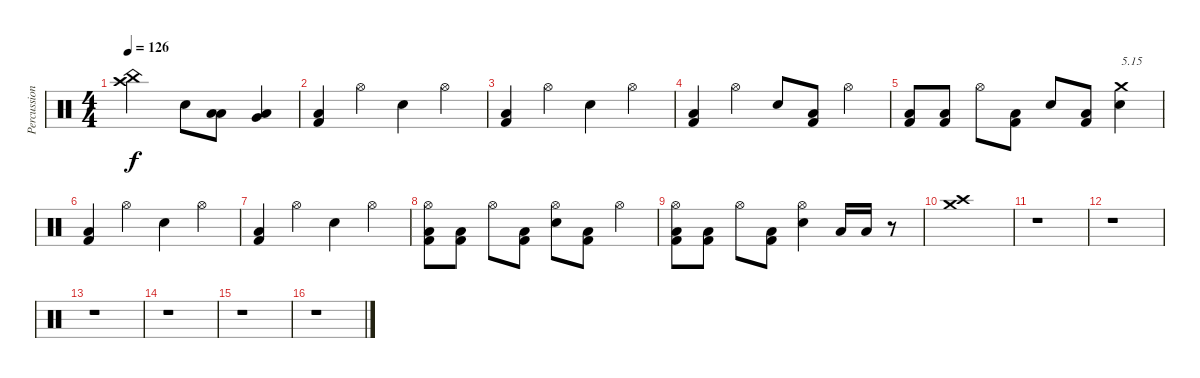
\track ("Percussions" "Percussion") {instrument percussion}
\staff {score}
\articulation defaults
\ts (4 4)
\tempo 126
\clef neutral
\ks c
("China (hit)" "Crash high (hit)").2{dy f} "Snare (hit) 2".8 ("Low Floor Tom (hit)" "Low Tom (hit)").8 ("Low Floor Tom (hit)" "Very Low Tom (hit)").4 |
("Kick (hit) 2" "Low Floor Tom (hit)").4 "Hi-Hat (open)".4 "Snare (hit) 2".4 "Hi-Hat (open)".4 |
("Kick (hit) 2" "Low Floor Tom (hit)").4 "Hi-Hat (open)".4 "Snare (hit) 2".4 "Hi-Hat (open)".4 |
("Kick (hit) 2" "Low Floor Tom (hit)").4 "Hi-Hat (open)".4 "Snare (hit) 2".8 ("Kick (hit) 2" "Low Floor Tom (hit)").8 "Hi-Hat (open)".4 |
("Kick (hit) 2" "Low Floor Tom (hit)").8 ("Kick (hit) 2" "Low Floor Tom (hit)").8 "Hi-Hat (open)".8 ("Kick (hit) 2" "Low Floor Tom (hit)").8 "Snare (hit) 2".8 ("Kick (hit) 2" "Low Floor Tom (hit)").8 ("Snare (hit) 2" "Crash medium (hit)").4{txt "5.15"} |
("Kick (hit) 2" "Low Floor Tom (hit)").4 "Hi-Hat (open)".4 "Snare (hit) 2".4 "Hi-Hat (open)".4 |
("Kick (hit) 2" "Low Floor Tom (hit)").4 "Hi-Hat (open)".4 "Snare (hit) 2".4 "Hi-Hat (open)".4 |
("Kick (hit) 2" "Low Floor Tom (hit)" "Hi-Hat (open)").8 ("Kick (hit) 2" "Low Floor Tom (hit)").8 "Hi-Hat (open)".8 ("Kick (hit) 2" "Low Floor Tom (hit)").8 ("Snare (hit) 2" "Hi-Hat (open)").8 ("Kick (hit) 2" "Low Floor Tom (hit)").8 "Hi-Hat (open)".4 |
("Kick (hit) 2" "Low Floor Tom (hit)" "Hi-Hat (open)").8 ("Kick (hit) 2" "Low Floor Tom (hit)").8 "Hi-Hat (open)".8 ("Kick (hit) 2" "Low Floor Tom (hit)").8 ("Snare (hit) 2" "Hi-Hat (open)").4 "Low Tom (hit)".16 "Low Tom (hit)".16 r.8 |
("Crash high (hit)" "Crash medium (hit)").1 |
r.1 |
r.1 |
r.1 |
r.1 |
r.1 |
r.1
